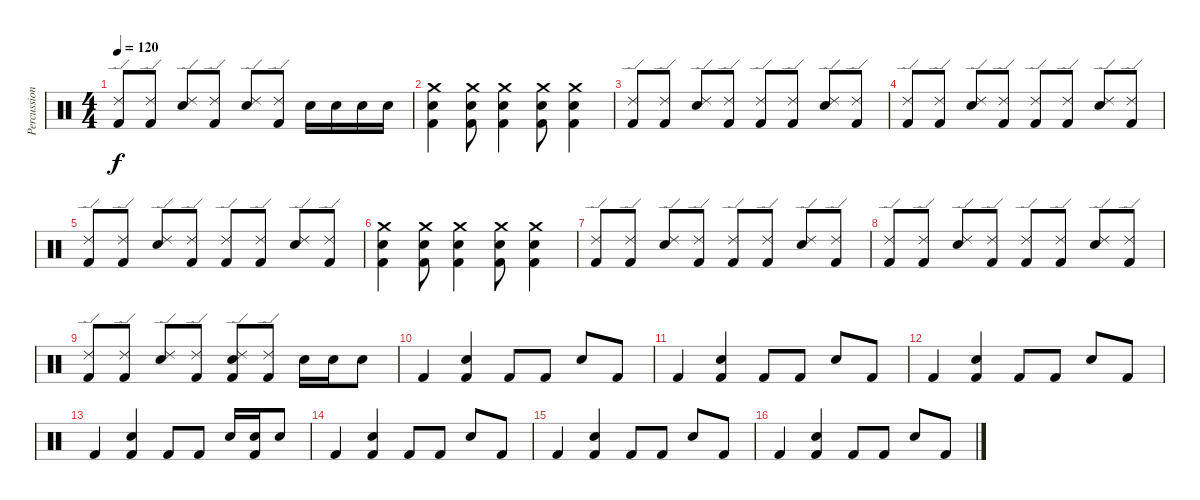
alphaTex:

\track ("Percussion" "Percussion") {instrument percussion}
\staff {score}
\articulation defaults
\ts (4 4)
\tempo 120
\clef neutral
\ks c
("Kick (hit) 2" "Ride (edge) 2").8{dy f} ("Kick (hit) 2" "Ride (edge) 2").8 ("Snare (hit) 2" "Ride (edge) 2").8 ("Kick (hit) 2" "Ride (edge) 2").8 ("Snare (hit) 2" "Ride (edge) 2").8 ("Kick (hit) 2" "Ride (edge) 2").8 "Snare (hit) 2".16 "Snare (hit) 2".16 "Snare (hit) 2".16 "Snare (hit) 2".16 |
("Kick (hit) 2" "Snare (hit) 2" "Crash medium (hit)").4 ("Kick (hit) 2" "Snare (hit) 2" "Crash medium (hit)").8 ("Kick (hit) 2" "Snare (hit) 2" "Crash medium (hit)").4 ("Kick (hit) 2" "Snare (hit) 2" "Crash medium (hit)").8 ("Kick (hit) 2" "Snare (hit) 2" "Crash medium (hit)").4 |
("Kick (hit) 2" "Ride (edge) 2").8 ("Kick (hit) 2" "Ride (edge) 2").8 ("Snare (hit) 2" "Ride (edge) 2").8 ("Kick (hit) 2" "Ride (edge) 2").8 ("Kick (hit) 2" "Ride (edge) 2").8 ("Kick (hit) 2" "Ride (edge) 2").8 ("Snare (hit) 2" "Ride (edge) 2").8 ("Kick (hit) 2" "Ride (edge) 2").8 |
("Kick (hit) 2" "Ride (edge) 2").8 ("Kick (hit) 2" "Ride (edge) 2").8 ("Snare (hit) 2" "Ride (edge) 2").8 ("Kick (hit) 2" "Ride (edge) 2").8 ("Kick (hit) 2" "Ride (edge) 2").8 ("Kick (hit) 2" "Ride (edge) 2").8 ("Snare (hit) 2" "Ride (edge) 2").8 ("Kick (hit) 2" "Ride (edge) 2").8 |
("Kick (hit) 2" "Ride (edge) 2").8 ("Kick (hit) 2" "Ride (edge) 2").8 ("Snare (hit) 2" "Ride (edge) 2").8 ("Kick (hit) 2" "Ride (edge) 2").8 ("Kick (hit) 2" "Ride (edge) 2").8 ("Kick (hit) 2" "Ride (edge) 2").8 ("Snare (hit) 2" "Ride (edge) 2").8 ("Kick (hit) 2" "Ride (edge) 2").8 |
("Kick (hit) 2" "Snare (hit) 2" "Crash medium (hit)").4 ("Kick (hit) 2" "Snare (hit) 2" "Crash medium (hit)").8 ("Kick (hit) 2" "Snare (hit) 2" "Crash medium (hit)").4 ("Kick (hit) 2" "Snare (hit) 2" "Crash medium (hit)").8 ("Kick (hit) 2" "Snare (hit) 2" "Crash medium (hit)").4 |
("Kick (hit) 2" "Ride (edge) 2").8 ("Kick (hit) 2" "Ride (edge) 2").8 ("Snare (hit) 2" "Ride (edge) 2").8 ("Kick (hit) 2" "Ride (edge) 2").8 ("Kick (hit) 2" "Ride (edge) 2").8 ("Kick (hit) 2" "Ride (edge) 2").8 ("Snare (hit) 2" "Ride (edge) 2").8 ("Kick (hit) 2" "Ride (edge) 2").8 |
("Kick (hit) 2" "Ride (edge) 2").8 ("Kick (hit) 2" "Ride (edge) 2").8 ("Snare (hit) 2" "Ride (edge) 2").8 ("Kick (hit) 2" "Ride (edge) 2").8 ("Kick (hit) 2" "Ride (edge) 2").8 ("Kick (hit) 2" "Ride (edge) 2").8 ("Snare (hit) 2" "Ride (edge) 2").8 ("Kick (hit) 2" "Ride (edge) 2").8 |
("Kick (hit) 2" "Ride (edge) 2").8 ("Kick (hit) 2" "Ride (edge) 2").8 ("Snare (hit) 2" "Ride (edge) 2").8 ("Kick (hit) 2" "Ride (edge) 2").8 ("Kick (hit) 2" "Snare (hit) 2" "Ride (edge) 2").8 ("Kick (hit) 2" "Ride (edge) 2").8 "Snare (hit) 2".16 "Snare (hit) 2".16 "Snare (hit) 2".8 |
"Kick (hit) 2".4 ("Kick (hit) 2" "Snare (hit) 2").4 "Kick (hit) 2".8 "Kick (hit) 2".8 "Snare (hit) 2".8 "Kick (hit) 2".8 |
"Kick (hit) 2".4 ("Kick (hit) 2" "Snare (hit) 2").4 "Kick (hit) 2".8 "Kick (hit) 2".8 "Snare (hit) 2".8 "Kick (hit) 2".8 |
"Kick (hit) 2".4 ("Kick (hit) 2" "Snare (hit) 2").4 "Kick (hit) 2".8 "Kick (hit) 2".8 "Snare (hit) 2".8 "Kick (hit) 2".8 |
"Kick (hit) 2".4 ("Kick (hit) 2" "Snare (hit) 2").4 "Kick (hit) 2".8 "Kick (hit) 2".8 "Snare (hit) 2".16 ("Kick (hit) 2" "Snare (hit) 2").16 "Snare (hit) 2".8 |
"Kick (hit) 2".4 ("Kick (hit) 2" "Snare (hit) 2").4 "Kick (hit) 2".8 "Kick (hit) 2".8 "Snare (hit) 2".8 "Kick (hit) 2".8 |
"Kick (hit) 2".4 ("Kick (hit) 2" "Snare (hit) 2").4 "Kick (hit) 2".8 "Kick (hit) 2".8 "Snare (hit) 2".8 "Kick (hit) 2".8 |
"Kick (hit) 2".4 ("Kick (hit) 2" "Snare (hit) 2").4 "Kick (hit) 2".8 "Kick (hit) 2".8 "Snare (hit) 2".8 "Kick (hit) 2".8
